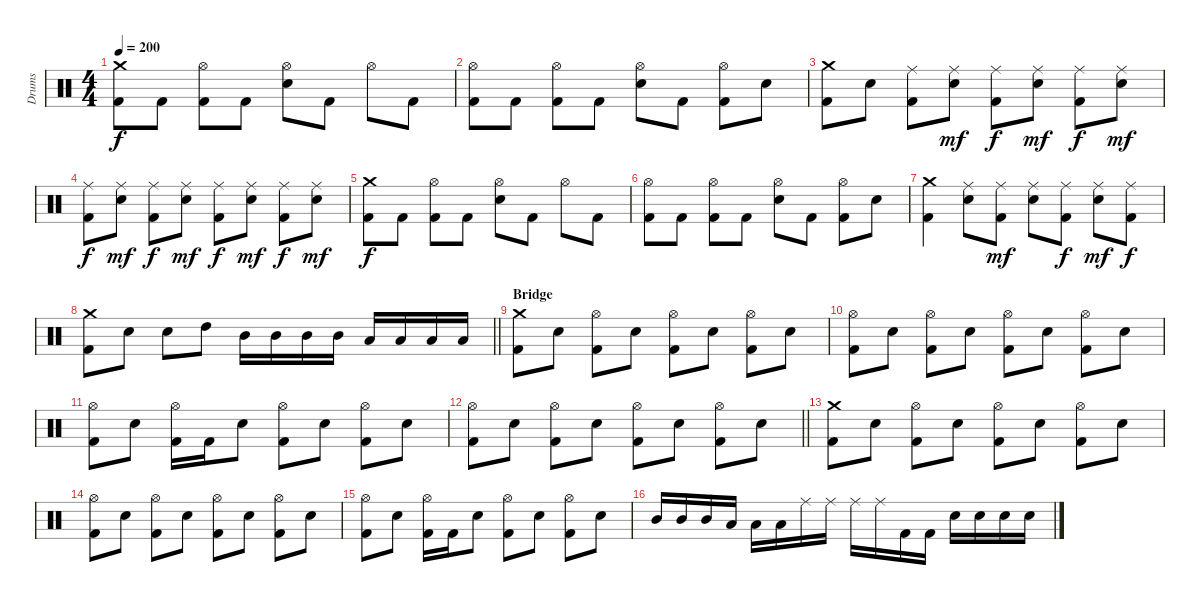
\track ("Drums" "Drums") {instrument percussion}
\staff {score}
\articulation defaults
\ts (4 4)
\tempo 200
\clef neutral
\ks c
("Crash medium (hit)" "Kick (hit) 2").8{dy f} "Kick (hit) 2".8 ("Hi-Hat (open)" "Kick (hit) 2").8 "Kick (hit) 2".8 ("Hi-Hat (open)" "Electric Snare (hit)").8 "Kick (hit) 2".8 "Hi-Hat (open)".8 "Kick (hit) 2".8 |
("Hi-Hat (open)" "Kick (hit) 2").8 "Kick (hit) 2".8 ("Hi-Hat (open)" "Kick (hit) 2").8 "Kick (hit) 2".8 ("Hi-Hat (open)" "Electric Snare (hit)").8 "Kick (hit) 2".8 ("Hi-Hat (open)" "Kick (hit) 2").8 "Electric Snare (hit)".8 |
("Crash medium (hit)" "Kick (hit) 2").8 "Electric Snare (hit)".8 ("Ride (middle)" "Kick (hit) 2").8 ("Ride (middle)" "Electric Snare (hit)").8{dy mf} ("Ride (middle)" "Kick (hit) 2").8{dy f} ("Ride (middle)" "Electric Snare (hit)").8{dy mf} ("Ride (middle)" "Kick (hit) 2").8{dy f} ("Ride (middle)" "Electric Snare (hit)").8{dy mf} |
("Ride (middle)" "Kick (hit) 2").8{dy f} ("Ride (middle)" "Electric Snare (hit)").8{dy mf} ("Ride (middle)" "Kick (hit) 2").8{dy f} ("Ride (middle)" "Electric Snare (hit)").8{dy mf} ("Ride (middle)" "Kick (hit) 2").8{dy f} ("Ride (middle)" "Electric Snare (hit)").8{dy mf} ("Ride (middle)" "Kick (hit) 2").8{dy f} ("Ride (middle)" "Electric Snare (hit)").8{dy mf} |
("Crash medium (hit)" "Kick (hit) 2").8{dy f} "Kick (hit) 2".8 ("Hi-Hat (open)" "Kick (hit) 2").8 "Kick (hit) 2".8 ("Hi-Hat (open)" "Electric Snare (hit)").8 "Kick (hit) 2".8 "Hi-Hat (open)".8 "Kick (hit) 2".8 |
("Hi-Hat (open)" "Kick (hit) 2").8 "Kick (hit) 2".8 ("Hi-Hat (open)" "Kick (hit) 2").8 "Kick (hit) 2".8 ("Hi-Hat (open)" "Electric Snare (hit)").8 "Kick (hit) 2".8 ("Hi-Hat (open)" "Kick (hit) 2").8 "Electric Snare (hit)".8 |
("Crash medium (hit)" "Kick (hit) 2").4 ("Ride (middle)" "Electric Snare (hit)").8 ("Ride (middle)" "Kick (hit) 2").8{dy mf} ("Ride (middle)" "Electric Snare (hit)").8 ("Ride (middle)" "Kick (hit) 2").8{dy f} ("Ride (middle)" "Electric Snare (hit)").8{dy mf} ("Ride (middle)" "Kick (hit) 2").8{dy f} |
\barLineRight lightlight
("Crash medium (hit)" "Kick (hit) 2").8 "Electric Snare (hit)".8 "Electric Snare (hit)".8 "High Tom (hit)".8 "Mid Tom (hit)".16 "Mid Tom (hit)".16 "Mid Tom (hit)".16 "Mid Tom (hit)".16 "Low Tom (hit)".16 "Low Tom (hit)".16 "Low Tom (hit)".16 "Low Tom (hit)".16 |
\section ("" "Bridge")
("Crash medium (hit)" "Kick (hit) 2").8 "Electric Snare (hit)".8 ("Hi-Hat (open)" "Kick (hit) 2").8 "Electric Snare (hit)".8 ("Hi-Hat (open)" "Kick (hit) 2").8 "Electric Snare (hit)".8 ("Hi-Hat (open)" "Kick (hit) 2").8 "Electric Snare (hit)".8 |
("Hi-Hat (open)" "Kick (hit) 2").8 "Electric Snare (hit)".8 ("Hi-Hat (open)" "Kick (hit) 2").8 "Electric Snare (hit)".8 ("Hi-Hat (open)" "Kick (hit) 2").8 "Electric Snare (hit)".8 ("Hi-Hat (open)" "Kick (hit) 2").8 "Electric Snare (hit)".8 |
("Hi-Hat (open)" "Kick (hit) 2").8 "Electric Snare (hit)".8 ("Hi-Hat (open)" "Kick (hit) 2").16 "Kick (hit) 2".16 "Electric Snare (hit)".8 ("Hi-Hat (open)" "Kick (hit) 2").8 "Electric Snare (hit)".8 ("Hi-Hat (open)" "Kick (hit) 2").8 "Electric Snare (hit)".8 |
\barLineRight lightlight
("Hi-Hat (open)" "Kick (hit) 2").8 "Electric Snare (hit)".8 ("Hi-Hat (open)" "Kick (hit) 2").8 "Electric Snare (hit)".8 ("Hi-Hat (open)" "Kick (hit) 2").8 "Electric Snare (hit)".8 ("Hi-Hat (open)" "Kick (hit) 2").8 "Electric Snare (hit)".8 |
("Crash medium (hit)" "Kick (hit) 2").8 "Electric Snare (hit)".8 ("Hi-Hat (open)" "Kick (hit) 2").8 "Electric Snare (hit)".8 ("Hi-Hat (open)" "Kick (hit) 2").8 "Electric Snare (hit)".8 ("Hi-Hat (open)" "Kick (hit) 2").8 "Electric Snare (hit)".8 |
("Hi-Hat (open)" "Kick (hit) 2").8 "Electric Snare (hit)".8 ("Hi-Hat (open)" "Kick (hit) 2").8 "Electric Snare (hit)".8 ("Hi-Hat (open)" "Kick (hit) 2").8 "Electric Snare (hit)".8 ("Hi-Hat (open)" "Kick (hit) 2").8 "Electric Snare (hit)".8 |
("Hi-Hat (open)" "Kick (hit) 2").8 "Electric Snare (hit)".8 ("Hi-Hat (open)" "Kick (hit) 2").16 "Kick (hit) 2".16 "Electric Snare (hit)".8 ("Hi-Hat (open)" "Kick (hit) 2").8 "Electric Snare (hit)".8 ("Hi-Hat (open)" "Kick (hit) 2").8 "Electric Snare (hit)".8 |
"Mid Tom (hit)".16 "Mid Tom (hit)".16 "Mid Tom (hit)".16 "Low Tom (hit)".16 "Low Tom (hit)".16 "Low Tom (hit)".16 "Ride (middle)".16 "Ride (middle)".16 "Ride (middle)".16 "Ride (middle)".16 "Kick (hit) 2".16 "Kick (hit) 2".16 "Electric Snare (hit)".16 "Electric Snare (hit)".16 "Electric Snare (hit)".16 "Electric Snare (hit)".16
